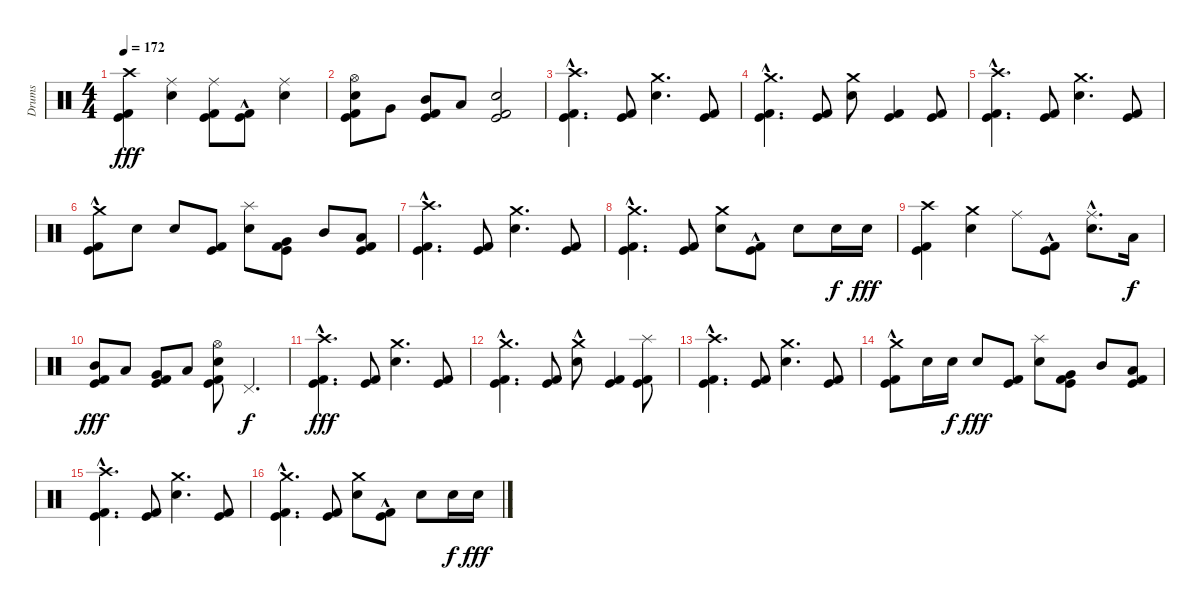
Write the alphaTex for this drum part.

\track ("Drums" "Drums") {instrument percussion}
\staff {score}
\articulation defaults
\ts (4 4)
\tempo 172
\clef neutral
\ks c
("Kick (hit)" "Kick (hit) 2" "Crash high (hit)").4{dy fff} ("Electric Snare (hit)" "Ride (middle)").4 ("Kick (hit)" "Kick (hit) 2" "Ride (middle)").8 ("Kick (hit)"{hac} "Kick (hit) 2"{hac}).8 ("Electric Snare (hit)" "Ride (middle)").4 |
("Kick (hit)" "Kick (hit) 2" "Electric Snare (hit)" "Hi-Hat (open)").8 "Very Low Tom (hit)".8 ("Kick (hit)" "Kick (hit) 2" "Mid Tom (hit)").8 "Low Tom (hit)".8 ("Kick (hit)" "Kick (hit) 2" "Electric Snare (hit)").2 |
("Kick (hit)"{hac} "Kick (hit) 2"{hac} "Crash high (hit)").4{d} ("Kick (hit)" "Kick (hit) 2").8 ("Electric Snare (hit)" "Crash medium (hit)").4{d} ("Kick (hit)" "Kick (hit) 2").8 |
("Kick (hit)"{hac} "Kick (hit) 2"{hac} "Crash medium (hit)").4{d} ("Kick (hit)" "Kick (hit) 2").8 ("Electric Snare (hit)" "Crash medium (hit)").8 ("Kick (hit)" "Kick (hit) 2").4 ("Kick (hit)" "Kick (hit) 2").8 |
("Kick (hit)"{hac} "Kick (hit) 2"{hac} "Crash high (hit)").4{d} ("Kick (hit)" "Kick (hit) 2").8 ("Electric Snare (hit)" "Crash medium (hit)").4{d} ("Kick (hit)" "Kick (hit) 2").8 |
("Kick (hit)"{hac} "Kick (hit) 2"{hac} "Crash medium (hit)").8 "Electric Snare (hit)".8 "Electric Snare (hit)".8 ("Kick (hit)" "Kick (hit) 2").8 ("Electric Snare (hit)" "Splash (hit)").8 ("Kick (hit)" "Kick (hit) 2" "Very Low Tom (hit)").8 "Mid Tom (hit)".8 ("Kick (hit)" "Kick (hit) 2" "Low Tom (hit)").8 |
("Kick (hit)"{hac} "Kick (hit) 2"{hac} "Crash high (hit)").4{d} ("Kick (hit)" "Kick (hit) 2").8 ("Electric Snare (hit)" "Crash medium (hit)").4{d} ("Kick (hit)" "Kick (hit) 2").8 |
("Kick (hit)"{hac} "Kick (hit) 2"{hac} "Crash medium (hit)").4{d} ("Kick (hit)" "Kick (hit) 2").8 ("Electric Snare (hit)" "Crash medium (hit)").8 ("Kick (hit)"{hac} "Kick (hit) 2"{hac}).8 "Electric Snare (hit)".8 "Electric Snare (hit)".16{dy f} "Electric Snare (hit)".16{dy fff} |
("Kick (hit)" "Kick (hit) 2" "Crash high (hit)").4 ("Electric Snare (hit)" "Crash medium (hit)").4 "Ride (middle)".8 ("Kick (hit)"{hac} "Kick (hit) 2"{hac}).8 ("Electric Snare (hit)"{hac} "Ride (middle)"{hac}).8{d} "Low Tom (hit)".16{dy f} |
("Kick (hit)" "Kick (hit) 2" "Mid Tom (hit)").8{dy fff} "Low Tom (hit)".8 ("Kick (hit)" "Kick (hit) 2" "Very Low Tom (hit)").8 "Low Tom (hit)".8 ("Kick (hit)" "Kick (hit) 2" "Electric Snare (hit)" "Hi-Hat (open)").8 "Pedal Hi-Hat (hit)".4{d dy f} |
("Kick (hit)"{hac} "Kick (hit) 2"{hac} "Crash high (hit)").4{d dy fff} ("Kick (hit)" "Kick (hit) 2").8 ("Electric Snare (hit)" "Crash medium (hit)").4{d} ("Kick (hit)" "Kick (hit) 2").8 |
("Kick (hit)"{hac} "Kick (hit) 2"{hac} "Crash medium (hit)").4{d} ("Kick (hit)" "Kick (hit) 2").8 ("Electric Snare (hit)" "Crash medium (hit)"{hac}).8 ("Kick (hit)" "Kick (hit) 2").4 ("Kick (hit)" "Kick (hit) 2" "Splash (hit)").8 |
("Kick (hit)"{hac} "Kick (hit) 2"{hac} "Crash high (hit)").4{d} ("Kick (hit)" "Kick (hit) 2").8 ("Electric Snare (hit)" "Crash medium (hit)").4{d} ("Kick (hit)" "Kick (hit) 2").8 |
("Kick (hit)"{hac} "Kick (hit) 2"{hac} "Crash medium (hit)").8 "Electric Snare (hit)".16 "Electric Snare (hit)".16{dy f} "Electric Snare (hit)".8{dy fff} ("Kick (hit)" "Kick (hit) 2").8 ("Electric Snare (hit)" "Splash (hit)").8 ("Kick (hit)" "Kick (hit) 2" "Very Low Tom (hit)").8 "Mid Tom (hit)".8 ("Kick (hit)" "Kick (hit) 2" "Low Tom (hit)").8 |
("Kick (hit)"{hac} "Kick (hit) 2"{hac} "Crash high (hit)").4{d} ("Kick (hit)" "Kick (hit) 2").8 ("Electric Snare (hit)" "Crash medium (hit)").4{d} ("Kick (hit)" "Kick (hit) 2").8 |
("Kick (hit)"{hac} "Kick (hit) 2"{hac} "Crash medium (hit)").4{d} ("Kick (hit)" "Kick (hit) 2").8 ("Electric Snare (hit)" "Crash medium (hit)").8 ("Kick (hit)"{hac} "Kick (hit) 2"{hac}).8 "Electric Snare (hit)".8 "Electric Snare (hit)".16{dy f} "Electric Snare (hit)".16{dy fff}
